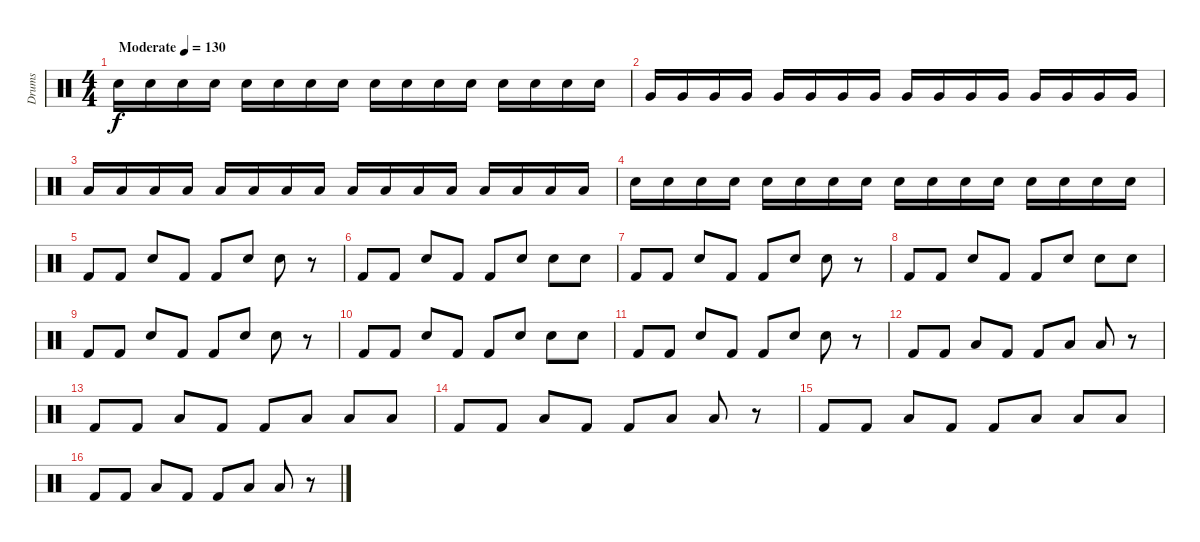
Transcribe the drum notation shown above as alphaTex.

\track ("Drums" "Drums") {instrument percussion}
\staff {score}
\articulation defaults
\ts (4 4)
\tempo (130 "Moderate")
\clef neutral
\ks c "Snare (hit) 2".16{dy f volume 4} "Snare (hit) 2".16 "Snare (hit) 2".16 "Snare (hit) 2".16 "Snare (hit) 2".16 "Snare (hit) 2".16 "Snare (hit) 2".16 "Snare (hit) 2".16 "Snare (hit) 2".16 "Snare (hit) 2".16 "Snare (hit) 2".16 "Snare (hit) 2".16 "Snare (hit) 2".16 "Snare (hit) 2".16 "Snare (hit) 2".16 "Snare (hit) 2".16
|
"Very Low Tom (hit)".16 "Very Low Tom (hit)".16 "Very Low Tom (hit)".16 "Very Low Tom (hit)".16 "Very Low Tom (hit)".16 "Very Low Tom (hit)".16 "Very Low Tom (hit)".16 "Very Low Tom (hit)".16 "Very Low Tom (hit)".16 "Very Low Tom (hit)".16 "Very Low Tom (hit)".16 "Very Low Tom (hit)".16 "Very Low Tom (hit)".16 "Very Low Tom (hit)".16 "Very Low Tom (hit)".16 "Very Low Tom (hit)".16 |
"Low Floor Tom (hit)".16 "Low Floor Tom (hit)".16 "Low Floor Tom (hit)".16 "Low Floor Tom (hit)".16 "Low Floor Tom (hit)".16 "Low Floor Tom (hit)".16 "Low Floor Tom (hit)".16 "Low Floor Tom (hit)".16 "Low Floor Tom (hit)".16 "Low Floor Tom (hit)".16 "Low Floor Tom (hit)".16 "Low Floor Tom (hit)".16 "Low Floor Tom (hit)".16 "Low Floor Tom (hit)".16 "Low Floor Tom (hit)".16 "Low Floor Tom (hit)".16 |
"Snare (hit) 2".16 "Snare (hit) 2".16 "Snare (hit) 2".16 "Snare (hit) 2".16 "Snare (hit) 2".16 "Snare (hit) 2".16 "Snare (hit) 2".16 "Snare (hit) 2".16 "Snare (hit) 2".16 "Snare (hit) 2".16 "Snare (hit) 2".16 "Snare (hit) 2".16 "Snare (hit) 2".16 "Snare (hit) 2".16 "Snare (hit) 2".16 "Snare (hit) 2".16 |
"Kick (hit) 2".8{volume 12} "Kick (hit) 2".8 "Snare (hit) 2".8 "Kick (hit) 2".8 "Kick (hit) 2".8 "Snare (hit) 2".8 "Snare (hit) 2".8 r.8 |
"Kick (hit) 2".8 "Kick (hit) 2".8 "Snare (hit) 2".8 "Kick (hit) 2".8 "Kick (hit) 2".8 "Snare (hit) 2".8 "Snare (hit) 2".8 "Snare (hit) 2".8 |
"Kick (hit) 2".8 "Kick (hit) 2".8 "Snare (hit) 2".8 "Kick (hit) 2".8 "Kick (hit) 2".8 "Snare (hit) 2".8 "Snare (hit) 2".8 r.8 |
"Kick (hit) 2".8 "Kick (hit) 2".8 "Snare (hit) 2".8 "Kick (hit) 2".8 "Kick (hit) 2".8 "Snare (hit) 2".8 "Snare (hit) 2".8 "Snare (hit) 2".8 |
"Kick (hit) 2".8 "Kick (hit) 2".8 "Snare (hit) 2".8 "Kick (hit) 2".8 "Kick (hit) 2".8 "Snare (hit) 2".8 "Snare (hit) 2".8 r.8 |
"Kick (hit) 2".8 "Kick (hit) 2".8 "Snare (hit) 2".8 "Kick (hit) 2".8 "Kick (hit) 2".8 "Snare (hit) 2".8 "Snare (hit) 2".8 "Snare (hit) 2".8 |
"Kick (hit) 2".8 "Kick (hit) 2".8 "Snare (hit) 2".8 "Kick (hit) 2".8 "Kick (hit) 2".8 "Snare (hit) 2".8 "Snare (hit) 2".8 r.8 |
"Kick (hit) 2".8 "Kick (hit) 2".8 "Low Tom (hit)".8 "Kick (hit) 2".8 "Kick (hit) 2".8 "Low Tom (hit)".8 "Low Tom (hit)".8 r.8 |
"Kick (hit) 2".8 "Kick (hit) 2".8 "Low Tom (hit)".8 "Kick (hit) 2".8 "Kick (hit) 2".8 "Low Tom (hit)".8 "Low Tom (hit)".8 "Low Floor Tom (hit)".8 |
"Kick (hit) 2".8 "Kick (hit) 2".8 "Low Tom (hit)".8 "Kick (hit) 2".8 "Kick (hit) 2".8 "Low Tom (hit)".8 "Low Tom (hit)".8 r.8 |
"Kick (hit) 2".8 "Kick (hit) 2".8 "Low Tom (hit)".8 "Kick (hit) 2".8 "Kick (hit) 2".8 "Low Tom (hit)".8 "Low Tom (hit)".8 "Low Floor Tom (hit)".8 |
"Kick (hit) 2".8 "Kick (hit) 2".8 "Low Tom (hit)".8 "Kick (hit) 2".8 "Kick (hit) 2".8 "Low Tom (hit)".8 "Low Tom (hit)".8 r.8
